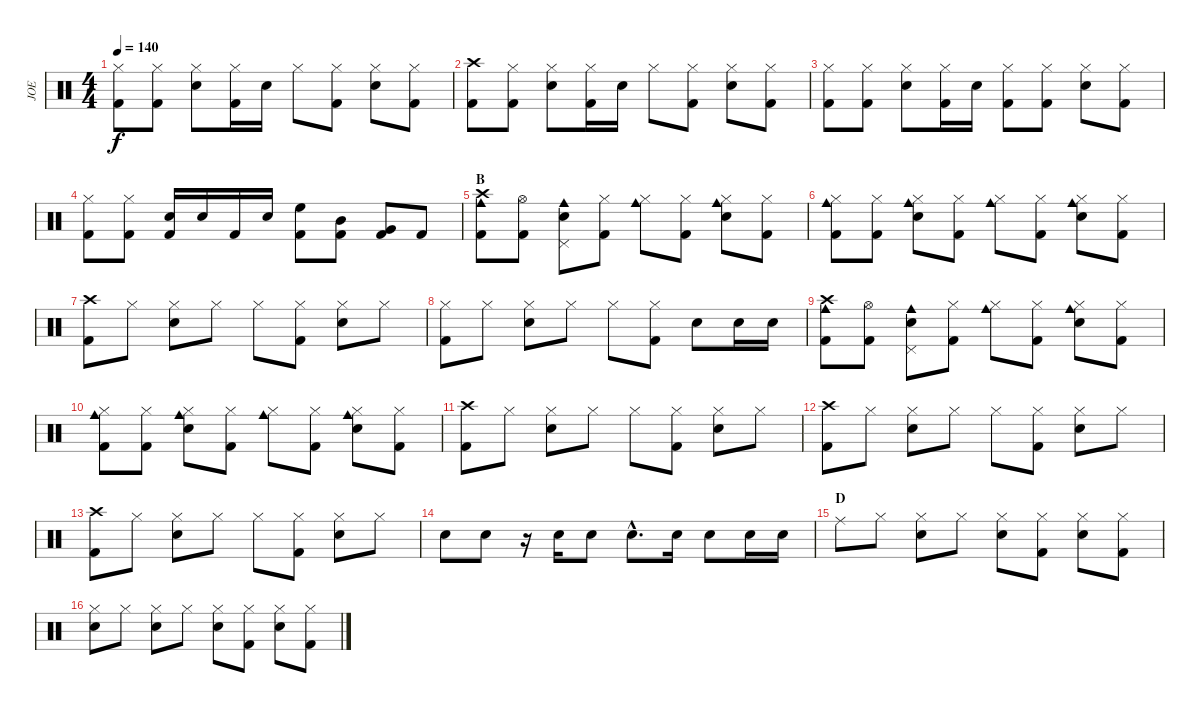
\track ("JOE" "JOE") {instrument percussion}
\staff {score}
\articulation defaults
\ts (4 4)
\tempo 140
\clef neutral
\ks c
("Hi-Hat (closed)" "Kick (hit) 2").8{dy f} ("Hi-Hat (closed)" "Kick (hit) 2").8 ("Hi-Hat (closed)" "Snare (hit) 2").8 ("Hi-Hat (closed)" "Kick (hit) 2").16 "Snare (hit) 2".16 "Hi-Hat (closed)".8 ("Hi-Hat (closed)" "Kick (hit) 2").8 ("Hi-Hat (closed)" "Snare (hit) 2").8 ("Hi-Hat (closed)" "Kick (hit) 2").8 |
("Crash high (hit)" "Kick (hit) 2").8 ("Hi-Hat (closed)" "Kick (hit) 2").8 ("Hi-Hat (closed)" "Snare (hit) 2").8 ("Hi-Hat (closed)" "Kick (hit) 2").16 "Snare (hit) 2".16 "Hi-Hat (closed)".8 ("Hi-Hat (closed)" "Kick (hit) 2").8 ("Hi-Hat (closed)" "Snare (hit) 2").8 ("Hi-Hat (closed)" "Kick (hit) 2").8 |
("Hi-Hat (closed)" "Kick (hit) 2").8 ("Hi-Hat (closed)" "Kick (hit) 2").8 ("Hi-Hat (closed)" "Snare (hit) 2").8 ("Hi-Hat (closed)" "Kick (hit) 2").16 "Snare (hit) 2".16 ("Hi-Hat (closed)" "Kick (hit) 2").8 ("Hi-Hat (closed)" "Kick (hit) 2").8 ("Hi-Hat (closed)" "Snare (hit) 2").8 ("Hi-Hat (closed)" "Kick (hit) 2").8 |
("Hi-Hat (closed)" "Kick (hit) 2").8 ("Hi-Hat (closed)" "Kick (hit) 2").8 ("Snare (hit) 2" "Kick (hit) 2").16 "Snare (hit) 2".16 "Kick (hit) 2".16 "Snare (hit) 2".16 ("High Floor Tom (hit)" "Kick (hit) 2").8 ("Mid Tom (hit)" "Kick (hit) 2").8 ("Very Low Tom (hit)" "Kick (hit) 2").8 "Kick (hit) 2".8 |
\section ("" "B")
("Cowbell medium (hit)" "Crash high (hit)" "Kick (hit) 2").8 ("Hi-Hat (open)" "Kick (hit) 2").8 ("Cowbell medium (hit)" "Pedal Hi-Hat (hit)" "Snare (hit) 2").8 ("Hi-Hat (closed)" "Kick (hit) 2").8 ("Cowbell medium (hit)" "Hi-Hat (closed)").8 ("Hi-Hat (closed)" "Kick (hit) 2").8 ("Cowbell medium (hit)" "Hi-Hat (closed)" "Snare (hit) 2").8 ("Hi-Hat (closed)" "Kick (hit) 2").8 |
("Cowbell medium (hit)" "Hi-Hat (closed)" "Kick (hit) 2").8 ("Hi-Hat (closed)" "Kick (hit) 2").8 ("Cowbell medium (hit)" "Hi-Hat (closed)" "Snare (hit) 2").8 ("Hi-Hat (closed)" "Kick (hit) 2").8 ("Cowbell medium (hit)" "Hi-Hat (closed)").8 ("Hi-Hat (closed)" "Kick (hit) 2").8 ("Cowbell medium (hit)" "Hi-Hat (closed)" "Snare (hit) 2").8 ("Hi-Hat (closed)" "Kick (hit) 2").8 |
("Crash high (hit)" "Kick (hit) 2").8 "Hi-Hat (closed)".8 ("Hi-Hat (closed)" "Snare (hit) 2").8 "Hi-Hat (closed)".8 "Hi-Hat (closed)".8 ("Hi-Hat (closed)" "Kick (hit) 2").8 ("Hi-Hat (closed)" "Snare (hit) 2").8 "Hi-Hat (closed)".8 |
("Hi-Hat (closed)" "Kick (hit) 2").8 "Hi-Hat (closed)".8 ("Hi-Hat (closed)" "Snare (hit) 2").8 "Hi-Hat (closed)".8 "Hi-Hat (closed)".8 ("Hi-Hat (closed)" "Kick (hit) 2").8 "Snare (hit) 2".8 "Snare (hit) 2".16 "Snare (hit) 2".16 |
("Cowbell medium (hit)" "Crash high (hit)" "Kick (hit) 2").8 ("Hi-Hat (open)" "Kick (hit) 2").8 ("Cowbell medium (hit)" "Pedal Hi-Hat (hit)" "Snare (hit) 2").8 ("Hi-Hat (closed)" "Kick (hit) 2").8 ("Cowbell medium (hit)" "Hi-Hat (closed)").8 ("Hi-Hat (closed)" "Kick (hit) 2").8 ("Cowbell medium (hit)" "Hi-Hat (closed)" "Snare (hit) 2").8 ("Hi-Hat (closed)" "Kick (hit) 2").8 |
("Cowbell medium (hit)" "Hi-Hat (closed)" "Kick (hit) 2").8 ("Hi-Hat (closed)" "Kick (hit) 2").8 ("Cowbell medium (hit)" "Hi-Hat (closed)" "Snare (hit) 2").8 ("Hi-Hat (closed)" "Kick (hit) 2").8 ("Cowbell medium (hit)" "Hi-Hat (closed)").8 ("Hi-Hat (closed)" "Kick (hit) 2").8 ("Cowbell medium (hit)" "Hi-Hat (closed)" "Snare (hit) 2").8 ("Hi-Hat (closed)" "Kick (hit) 2").8 |
("Crash high (hit)" "Kick (hit) 2").8 "Hi-Hat (closed)".8 ("Hi-Hat (closed)" "Snare (hit) 2").8 "Hi-Hat (closed)".8 "Hi-Hat (closed)".8 ("Hi-Hat (closed)" "Kick (hit) 2").8 ("Hi-Hat (closed)" "Snare (hit) 2").8 "Hi-Hat (closed)".8 |
("Crash high (hit)" "Kick (hit) 2").8 "Hi-Hat (closed)".8 ("Hi-Hat (closed)" "Snare (hit) 2").8 "Hi-Hat (closed)".8 "Hi-Hat (closed)".8 ("Hi-Hat (closed)" "Kick (hit) 2").8 ("Hi-Hat (closed)" "Snare (hit) 2").8 "Hi-Hat (closed)".8 |
("Crash high (hit)" "Kick (hit) 2").8 "Hi-Hat (closed)".8 ("Hi-Hat (closed)" "Snare (hit) 2").8 "Hi-Hat (closed)".8 "Hi-Hat (closed)".8 ("Hi-Hat (closed)" "Kick (hit) 2").8 ("Hi-Hat (closed)" "Snare (hit) 2").8 "Hi-Hat (closed)".8 |
"Snare (hit) 2".8 "Snare (hit) 2".8 r.16 "Snare (hit) 2".16 "Snare (hit) 2".8 "Snare (hit) 2"{hac}.8{d} "Snare (hit) 2".16 "Snare (hit) 2".8 "Snare (hit) 2".16 "Snare (hit) 2".16 |
\section ("" "D")
"Ride (middle)".8 "Hi-Hat (closed)".8 ("Hi-Hat (closed)" "Snare (hit) 2").8 "Hi-Hat (closed)".8 ("Hi-Hat (closed)" "Snare (hit) 2").8 ("Hi-Hat (closed)" "Kick (hit) 2").8 ("Hi-Hat (closed)" "Snare (hit) 2").8 ("Hi-Hat (closed)" "Kick (hit) 2").8 |
("Hi-Hat (closed)" "Snare (hit) 2").8 "Hi-Hat (closed)".8 ("Hi-Hat (closed)" "Snare (hit) 2").8 "Hi-Hat (closed)".8 ("Hi-Hat (closed)" "Snare (hit) 2").8 ("Hi-Hat (closed)" "Kick (hit) 2").8 ("Hi-Hat (closed)" "Snare (hit) 2").8 ("Hi-Hat (closed)" "Kick (hit) 2").8
